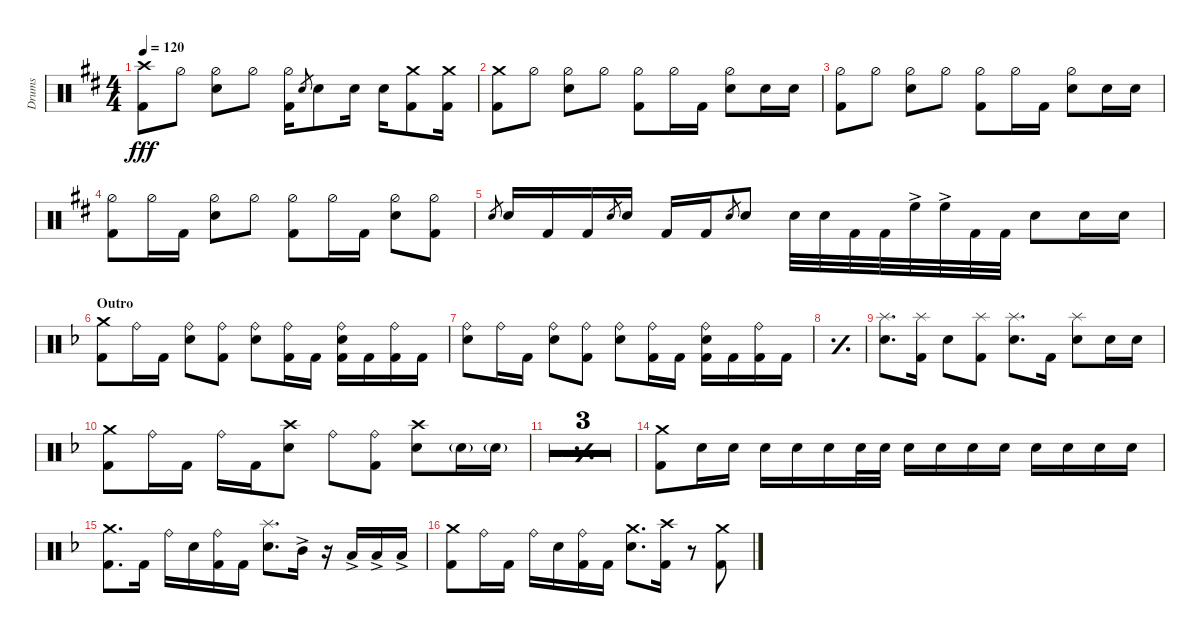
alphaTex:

\defaultSystemsLayout 4
\bracketExtendMode groupsimilarinstruments
\otherSystemsTrackNameOrientation horizontal
\track ("Drumkit" "Drums") {multiBarRest instrument percussion}
\staff {score}
\articulation defaults
\ts (4 4)
\tempo 120
\clef neutral
\ks d
("Kick (hit) 2"{acc forcenatural} "Crash high (hit)"{acc forcenatural}).8{dy fff} "Hi-Hat (half)"{acc forcenatural}.8 ("Hi-Hat (half)"{acc forcenatural} "Snare (hit) 2"{acc forcenatural}).8 "Hi-Hat (half)"{acc forcenatural}.8 ("Hi-Hat (half)"{acc forcenatural} "Kick (hit) 2"{acc forcenatural}).16 "Snare (hit) 2"{acc forcenatural}.8{gr} "Snare (hit) 2"{acc forcenatural}.8 "Snare (hit) 2"{acc forcenatural}.16 "Snare (hit) 2"{acc forcenatural}.16 ("Kick (hit) 2"{acc forcenatural} "Crash medium (hit)"{acc forcenatural}).8 ("Kick (hit) 2"{acc forcenatural} "Crash medium (hit)"{acc forcenatural}).16 |
("Kick (hit) 2"{acc forcenatural} "Crash medium (hit)"{acc forcenatural}).8 "Hi-Hat (half)"{acc forcenatural}.8 ("Hi-Hat (half)"{acc forcenatural} "Snare (hit) 2"{acc forcenatural}).8 "Hi-Hat (half)"{acc forcenatural}.8 ("Hi-Hat (half)"{acc forcenatural} "Kick (hit) 2"{acc forcenatural}).8 "Hi-Hat (half)"{acc forcenatural}.16 "Kick (hit) 2"{acc forcenatural}.16 ("Hi-Hat (half)"{acc forcenatural} "Snare (hit) 2"{acc forcenatural}).8 "Snare (hit) 2"{acc forcenatural}.16 "Snare (hit) 2"{acc forcenatural}.16 |
("Kick (hit) 2"{acc forcenatural} "Hi-Hat (half)"{acc forcenatural}).8 "Hi-Hat (half)"{acc forcenatural}.8 ("Hi-Hat (half)"{acc forcenatural} "Snare (hit) 2"{acc forcenatural}).8 "Hi-Hat (half)"{acc forcenatural}.8 ("Hi-Hat (half)"{acc forcenatural} "Kick (hit) 2"{acc forcenatural}).8 "Hi-Hat (half)"{acc forcenatural}.16 "Kick (hit) 2"{acc forcenatural}.16 ("Hi-Hat (half)"{acc forcenatural} "Snare (hit) 2"{acc forcenatural}).8 "Snare (hit) 2"{acc forcenatural}.16 "Snare (hit) 2"{acc forcenatural}.16 |
("Kick (hit) 2"{acc forcenatural} "Hi-Hat (half)"{acc forcenatural}).8 "Hi-Hat (half)"{acc forcenatural}.16 "Kick (hit) 2"{acc forcenatural}.16 ("Hi-Hat (half)"{acc forcenatural} "Snare (hit) 2"{acc forcenatural}).8 "Hi-Hat (half)"{acc forcenatural}.8 ("Hi-Hat (half)"{acc forcenatural} "Kick (hit) 2"{acc forcenatural}).8 "Hi-Hat (half)"{acc forcenatural}.16 "Kick (hit) 2"{acc forcenatural}.16 ("Hi-Hat (half)"{acc forcenatural} "Snare (hit) 2"{acc forcenatural}).8 ("Hi-Hat (half)"{acc forcenatural} "Kick (hit) 2"{acc forcenatural}).8 |
"Snare (hit) 2"{acc forcenatural}.8{gr} "Snare (hit) 2"{acc forcenatural}.16 "Kick (hit) 2"{acc forcenatural}.16 "Kick (hit) 2"{acc forcenatural}.16 "Snare (hit) 2"{acc forcenatural}.8{gr} "Snare (hit) 2"{acc forcenatural}.16 "Kick (hit) 2"{acc forcenatural}.16 "Kick (hit) 2"{acc forcenatural}.16 "Snare (hit) 2"{acc forcenatural}.8{gr} "Snare (hit) 2"{acc forcenatural}.8 "Snare (hit) 2"{acc forcenatural}.32 "Snare (hit) 2"{acc forcenatural}.32 "Kick (hit) 2"{acc forcenatural}.32 "Kick (hit) 2"{acc forcenatural}.32 "High Floor Tom (hit)"{ac acc forcenatural}.32 "High Floor Tom (hit)"{ac acc forcenatural}.32 "Kick (hit) 2"{acc forcenatural}.32 "Kick (hit) 2"{acc forcenatural}.32 "Snare (hit) 2"{acc forcenatural}.8 "Snare (hit) 2"{acc forcenatural}.16 "Snare (hit) 2"{acc forcenatural}.16 |
\section ("" "Outro")
\ks f
("Crash medium (hit)"{acc forcenatural} "Kick (hit) 2"{acc forcenatural}).8 "Ride (bell)"{acc forcenatural}.16 "Kick (hit) 2"{acc forcenatural}.16 ("Ride (bell)"{acc forcenatural} "Snare (hit) 2"{acc forcenatural}).8 ("Ride (bell)"{acc forcenatural} "Kick (hit) 2"{acc forcenatural}).8 ("Ride (bell)"{acc forcenatural} "Snare (hit) 2"{acc forcenatural}).8 ("Ride (bell)"{acc forcenatural} "Kick (hit) 2"{acc forcenatural}).16 "Kick (hit) 2"{acc forcenatural}.16 ("Ride (bell)"{acc forcenatural} "Snare (hit) 2"{acc forcenatural} "Kick (hit) 2"{acc forcenatural}).16 "Kick (hit) 2"{acc forcenatural}.16 ("Ride (bell)"{acc forcenatural} "Kick (hit) 2"{acc forcenatural}).16 "Kick (hit) 2"{acc forcenatural}.16 |
("Ride (bell)"{acc forcenatural} "Snare (hit) 2"{acc forcenatural}).8 "Ride (bell)"{acc forcenatural}.16 "Kick (hit) 2"{acc forcenatural}.16 ("Ride (bell)"{acc forcenatural} "Snare (hit) 2"{acc forcenatural}).8 ("Ride (bell)"{acc forcenatural} "Kick (hit) 2"{acc forcenatural}).8 ("Ride (bell)"{acc forcenatural} "Snare (hit) 2"{acc forcenatural}).8 ("Ride (bell)"{acc forcenatural} "Kick (hit) 2"{acc forcenatural}).16 "Kick (hit) 2"{acc forcenatural}.16 ("Ride (bell)"{acc forcenatural} "Snare (hit) 2"{acc forcenatural} "Kick (hit) 2"{acc forcenatural}).16 "Kick (hit) 2"{acc forcenatural}.16 ("Ride (bell)"{acc forcenatural} "Kick (hit) 2"{acc forcenatural}).16 "Kick (hit) 2"{acc forcenatural}.16 |
\simile simple
|
\simile none
("Snare (hit) 2"{acc forcenatural} "Splash (hit)"{acc forcenatural}).8{d} ("Kick (hit) 2"{acc forcenatural} "Splash (hit)"{acc forcenatural}).16 "Snare (hit) 2"{acc forcenatural}.8 ("Kick (hit) 2"{acc forcenatural} "Splash (hit)"{acc forcenatural}).8 ("Snare (hit) 2"{acc forcenatural} "Splash (hit)"{acc forcenatural}).8{d} "Kick (hit) 2"{acc forcenatural}.16 ("Snare (hit) 2"{acc forcenatural} "Splash (hit)"{acc forcenatural}).8 "Snare (hit) 2"{acc forcenatural}.16 "Snare (hit) 2"{acc forcenatural}.16 |
("Crash medium (hit)"{acc forcenatural} "Kick (hit) 2"{acc forcenatural}).8 "Ride (bell)"{acc forcenatural}.16 "Kick (hit) 2"{acc forcenatural}.16 "Ride (bell)"{acc forcenatural}.16 "Kick (hit) 2"{acc forcenatural}.16 ("Snare (hit) 2"{acc forcenatural} "Crash high (hit)"{acc forcenatural}).8 "Ride (bell)"{acc forcenatural}.8 ("Ride (bell)"{acc forcenatural} "Kick (hit) 2"{acc forcenatural}).8 ("Snare (hit) 2"{acc forcenatural} "Crash high (hit)"{acc forcenatural}).8 "Snare (hit) 2"{g acc forcenatural}.16 "Snare (hit) 2"{g acc forcenatural}.16 |
\simile simple
|
|
|
\simile none
("Kick (hit) 2"{acc forcenatural} "Crash medium (hit)"{acc forcenatural}).8 "Snare (hit) 2"{acc forcenatural}.16 "Snare (hit) 2"{acc forcenatural}.16 "Snare (hit) 2"{acc forcenatural}.16 "Snare (hit) 2"{acc forcenatural}.16 "Snare (hit) 2"{acc forcenatural}.16 "Snare (hit) 2"{acc forcenatural}.32 "Snare (hit) 2"{acc forcenatural}.32 "Snare (hit) 2"{acc forcenatural}.16 "Snare (hit) 2"{acc forcenatural}.16 "Snare (hit) 2"{acc forcenatural}.16 "Snare (hit) 2"{acc forcenatural}.16 "Snare (hit) 2"{acc forcenatural}.16 "Snare (hit) 2"{acc forcenatural}.16 "Snare (hit) 2"{acc forcenatural}.16 "Snare (hit) 2"{acc forcenatural}.16 |
("Crash medium (hit)"{acc forcenatural} "Kick (hit) 2"{acc forcenatural}).8{d} "Kick (hit) 2"{acc forcenatural}.16 "Ride (bell)"{acc forcenatural}.16 "Snare (hit) 2"{acc forcenatural}.16 ("Kick (hit) 2"{acc forcenatural} "Ride (bell)"{acc forcenatural}).16 "Kick (hit) 2"{acc forcenatural}.16 ("Snare (hit) 2"{acc forcenatural} "Splash (hit)"{acc forcenatural}).8{d} "Mid Tom (hit)"{ac acc forcenatural}.16 r.16 "Low Tom (hit)"{ac acc forcenatural}.16 "Low Tom (hit)"{ac acc forcenatural}.16 "Low Tom (hit)"{ac acc forcenatural}.16 |
("Crash medium (hit)"{acc forcenatural} "Kick (hit) 2"{acc forcenatural}).8 "Ride (bell)"{acc forcenatural}.16 "Kick (hit) 2"{acc forcenatural}.16 "Ride (bell)"{acc forcenatural}.16 "Snare (hit) 2"{acc forcenatural}.16 ("Kick (hit) 2"{acc forcenatural} "Ride (bell)"{acc forcenatural}).16 "Kick (hit) 2"{acc forcenatural}.16 ("Snare (hit) 2"{acc forcenatural} "Crash medium (hit)"{acc forcenatural}).8{d} ("Kick (hit) 2"{acc forcenatural} "Crash high (hit)"{acc forcenatural}).16 r.8 ("Kick (hit) 2"{acc forcenatural} "Crash medium (hit)"{acc forcenatural}).8
